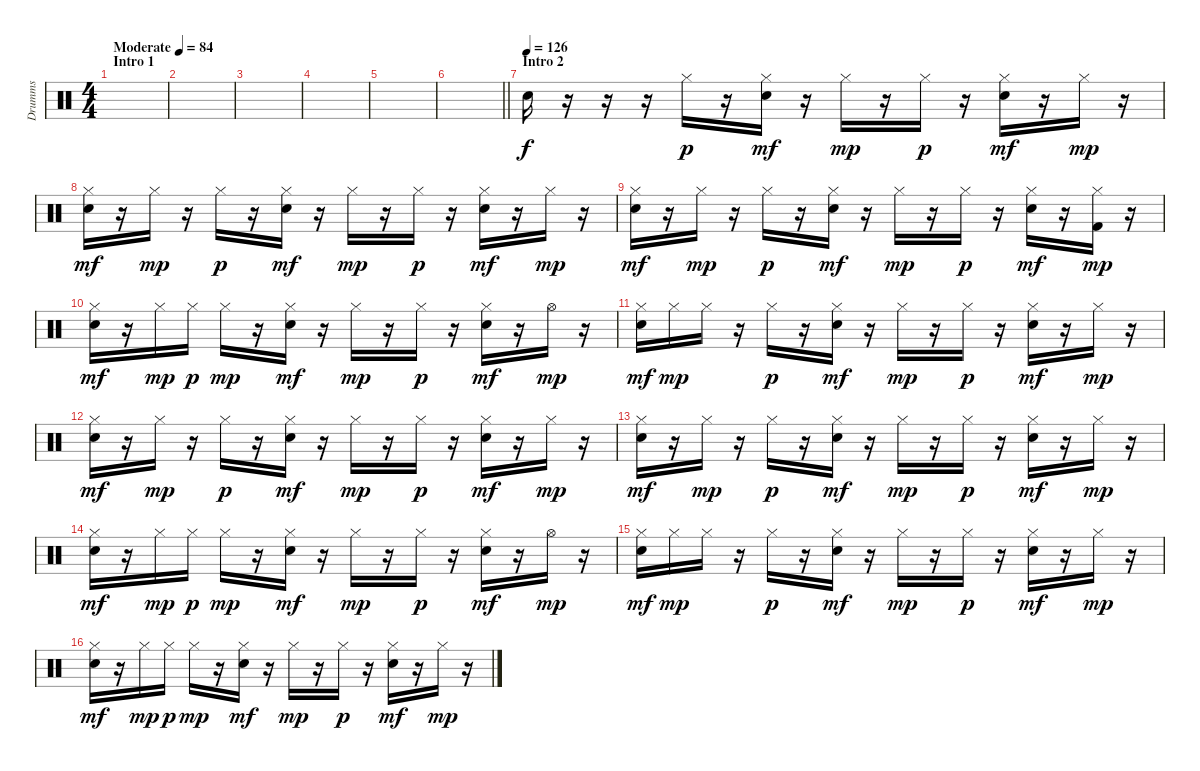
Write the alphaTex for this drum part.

\track ("Drumms" "Drumms") {instrument percussion}
\staff {score}
\articulation defaults
\ts (4 4)
\section ("" "Intro 1")
\tempo (84 "Moderate")
\clef neutral
\ks c
|
|
|
|
|
\barLineRight lightlight
|
\section ("" "Intro 2")
\tempo (126)
"Snare (hit) 2".16 r.16 r.16 r.16 "Hi-Hat (closed)".16{dy p} r.16 ("Snare (hit) 2" "Hi-Hat (closed)").16{dy mf} r.16 "Hi-Hat (closed)".16{dy mp} r.16 "Hi-Hat (closed)".16{dy p} r.16 ("Snare (hit) 2" "Hi-Hat (closed)").16{dy mf} r.16 "Hi-Hat (closed)".16{dy mp} r.16 |
("Snare (hit) 2" "Hi-Hat (closed)").16{dy mf} r.16 "Hi-Hat (closed)".16{dy mp} r.16 "Hi-Hat (closed)".16{dy p} r.16 ("Snare (hit) 2" "Hi-Hat (closed)").16{dy mf} r.16 "Hi-Hat (closed)".16{dy mp} r.16 "Hi-Hat (closed)".16{dy p} r.16 ("Snare (hit) 2" "Hi-Hat (closed)").16{dy mf} r.16 "Hi-Hat (closed)".16{dy mp} r.16 |
("Snare (hit) 2" "Hi-Hat (closed)").16{dy mf} r.16 "Hi-Hat (closed)".16{dy mp} r.16 "Hi-Hat (closed)".16{dy p} r.16 ("Snare (hit) 2" "Hi-Hat (closed)").16{dy mf} r.16 "Hi-Hat (closed)".16{dy mp} r.16 "Hi-Hat (closed)".16{dy p} r.16 ("Snare (hit) 2" "Hi-Hat (closed)").16{dy mf} r.16 ("Kick (hit) 2" "Hi-Hat (closed)").16{dy mp} r.16 |
("Snare (hit) 2" "Hi-Hat (closed)").16{dy mf} r.16 "Hi-Hat (closed)".16{dy mp} "Hi-Hat (closed)".16{dy p} "Hi-Hat (closed)".16{dy mp} r.16 ("Snare (hit) 2" "Hi-Hat (closed)").16{dy mf} r.16 "Hi-Hat (closed)".16{dy mp} r.16 "Hi-Hat (closed)".16{dy p} r.16 ("Snare (hit) 2" "Hi-Hat (closed)").16{dy mf} r.16 "Hi-Hat (open)".16{dy mp} r.16 |
("Snare (hit) 2" "Hi-Hat (closed)").16{dy mf} "Hi-Hat (closed)".16{dy mp} "Hi-Hat (closed)".16 r.16 "Hi-Hat (closed)".16{dy p} r.16 ("Snare (hit) 2" "Hi-Hat (closed)").16{dy mf} r.16 "Hi-Hat (closed)".16{dy mp} r.16 "Hi-Hat (closed)".16{dy p} r.16 ("Snare (hit) 2" "Hi-Hat (closed)").16{dy mf} r.16 "Hi-Hat (closed)".16{dy mp} r.16 |
("Snare (hit) 2" "Hi-Hat (closed)").16{dy mf} r.16 "Hi-Hat (closed)".16{dy mp} r.16 "Hi-Hat (closed)".16{dy p} r.16 ("Snare (hit) 2" "Hi-Hat (closed)").16{dy mf} r.16 "Hi-Hat (closed)".16{dy mp} r.16 "Hi-Hat (closed)".16{dy p} r.16 ("Snare (hit) 2" "Hi-Hat (closed)").16{dy mf} r.16 "Hi-Hat (closed)".16{dy mp} r.16 |
("Snare (hit) 2" "Hi-Hat (closed)").16{dy mf} r.16 "Hi-Hat (closed)".16{dy mp} r.16 "Hi-Hat (closed)".16{dy p} r.16 ("Snare (hit) 2" "Hi-Hat (closed)").16{dy mf} r.16 "Hi-Hat (closed)".16{dy mp} r.16 "Hi-Hat (closed)".16{dy p} r.16 ("Snare (hit) 2" "Hi-Hat (closed)").16{dy mf} r.16 "Hi-Hat (closed)".16{dy mp} r.16 |
("Snare (hit) 2" "Hi-Hat (closed)").16{dy mf} r.16 "Hi-Hat (closed)".16{dy mp} "Hi-Hat (closed)".16{dy p} "Hi-Hat (closed)".16{dy mp} r.16 ("Snare (hit) 2" "Hi-Hat (closed)").16{dy mf} r.16 "Hi-Hat (closed)".16{dy mp} r.16 "Hi-Hat (closed)".16{dy p} r.16 ("Snare (hit) 2" "Hi-Hat (closed)").16{dy mf} r.16 "Hi-Hat (open)".16{dy mp} r.16 |
("Snare (hit) 2" "Hi-Hat (closed)").16{dy mf} "Hi-Hat (closed)".16{dy mp} "Hi-Hat (closed)".16 r.16 "Hi-Hat (closed)".16{dy p} r.16 ("Snare (hit) 2" "Hi-Hat (closed)").16{dy mf} r.16 "Hi-Hat (closed)".16{dy mp} r.16 "Hi-Hat (closed)".16{dy p} r.16 ("Snare (hit) 2" "Hi-Hat (closed)").16{dy mf} r.16 "Hi-Hat (closed)".16{dy mp} r.16 |
("Snare (hit) 2" "Hi-Hat (closed)").16{dy mf} r.16 "Hi-Hat (closed)".16{dy mp} "Hi-Hat (closed)".16{dy p} "Hi-Hat (closed)".16{dy mp} r.16 ("Snare (hit) 2" "Hi-Hat (closed)").16{dy mf} r.16 "Hi-Hat (closed)".16{dy mp} r.16 "Hi-Hat (closed)".16{dy p} r.16 ("Snare (hit) 2" "Hi-Hat (closed)").16{dy mf} r.16 "Hi-Hat (closed)".16{dy mp} r.16
